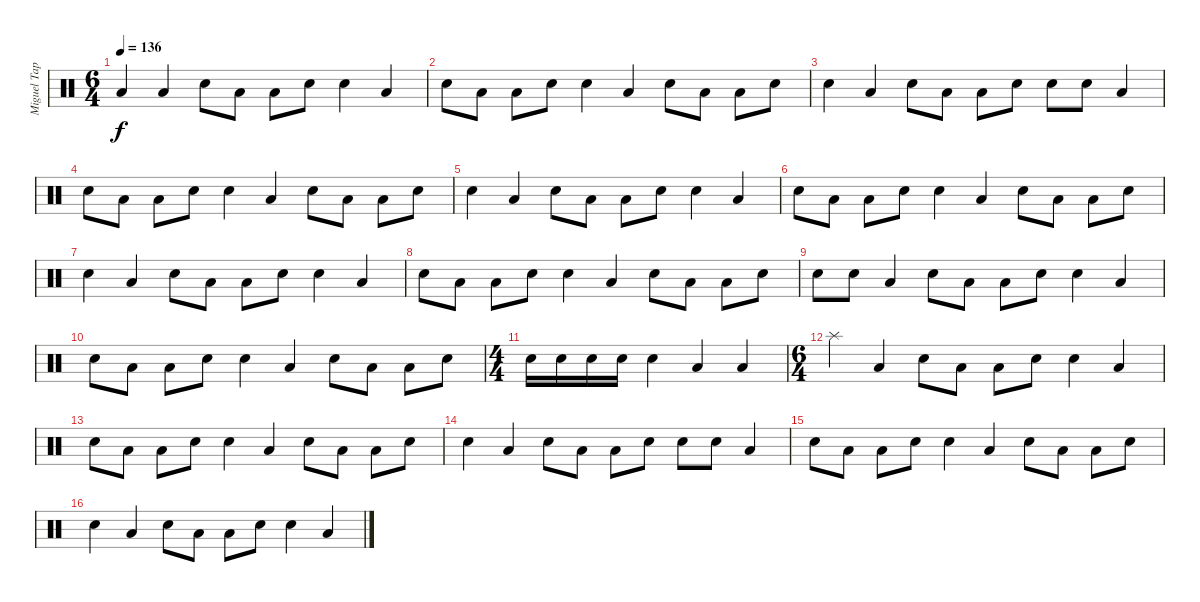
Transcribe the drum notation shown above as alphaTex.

\track ("Miguel Tapia (Bateria)" "Miguel Tap") {instrument percussion}
\staff {score}
\articulation defaults
\ts (6 4)
\tempo 136
\clef neutral
\ks c "Low Tom (hit)".4{dy f} "Low Tom (hit)".4 "Snare (hit) 2".8 "Low Tom (hit)".8 "Low Tom (hit)".8 "Snare (hit) 2".8 "Snare (hit) 2".4 "Low Tom (hit)".4
|
"Snare (hit) 2".8 "Low Tom (hit)".8 "Low Tom (hit)".8 "Snare (hit) 2".8 "Snare (hit) 2".4 "Low Tom (hit)".4 "Snare (hit) 2".8 "Low Tom (hit)".8 "Low Tom (hit)".8 "Snare (hit) 2".8 |
"Snare (hit) 2".4 "Low Tom (hit)".4 "Snare (hit) 2".8 "Low Tom (hit)".8 "Low Tom (hit)".8 "Snare (hit) 2".8 "Snare (hit) 2".8 "Snare (hit) 2".8 "Low Tom (hit)".4 |
"Snare (hit) 2".8 "Low Tom (hit)".8 "Low Tom (hit)".8 "Snare (hit) 2".8 "Snare (hit) 2".4 "Low Tom (hit)".4 "Snare (hit) 2".8 "Low Tom (hit)".8 "Low Tom (hit)".8 "Snare (hit) 2".8 |
"Snare (hit) 2".4 "Low Tom (hit)".4 "Snare (hit) 2".8 "Low Tom (hit)".8 "Low Tom (hit)".8 "Snare (hit) 2".8 "Snare (hit) 2".4 "Low Tom (hit)".4 |
"Snare (hit) 2".8 "Low Tom (hit)".8 "Low Tom (hit)".8 "Snare (hit) 2".8 "Snare (hit) 2".4 "Low Tom (hit)".4 "Snare (hit) 2".8 "Low Tom (hit)".8 "Low Tom (hit)".8 "Snare (hit) 2".8 |
"Snare (hit) 2".4 "Low Tom (hit)".4 "Snare (hit) 2".8 "Low Tom (hit)".8 "Low Tom (hit)".8 "Snare (hit) 2".8 "Snare (hit) 2".4 "Low Tom (hit)".4 |
"Snare (hit) 2".8 "Low Tom (hit)".8 "Low Tom (hit)".8 "Snare (hit) 2".8 "Snare (hit) 2".4 "Low Tom (hit)".4 "Snare (hit) 2".8 "Low Tom (hit)".8 "Low Tom (hit)".8 "Snare (hit) 2".8 |
"Snare (hit) 2".8 "Snare (hit) 2".8 "Low Tom (hit)".4 "Snare (hit) 2".8 "Low Tom (hit)".8 "Low Tom (hit)".8 "Snare (hit) 2".8 "Snare (hit) 2".4 "Low Tom (hit)".4 |
"Snare (hit) 2".8 "Low Tom (hit)".8 "Low Tom (hit)".8 "Snare (hit) 2".8 "Snare (hit) 2".4 "Low Tom (hit)".4 "Snare (hit) 2".8 "Low Tom (hit)".8 "Low Tom (hit)".8 "Snare (hit) 2".8 |
\ts (4 4)
"Snare (hit) 2".16 "Snare (hit) 2".16 "Snare (hit) 2".16 "Snare (hit) 2".16 "Snare (hit) 2".4 "Low Tom (hit)".4 "Low Tom (hit)".4 |
\ts (6 4)
"Splash (hit)".4 "Low Tom (hit)".4 "Snare (hit) 2".8 "Low Tom (hit)".8 "Low Tom (hit)".8 "Snare (hit) 2".8 "Snare (hit) 2".4 "Low Tom (hit)".4 |
"Snare (hit) 2".8 "Low Tom (hit)".8 "Low Tom (hit)".8 "Snare (hit) 2".8 "Snare (hit) 2".4 "Low Tom (hit)".4 "Snare (hit) 2".8 "Low Tom (hit)".8 "Low Tom (hit)".8 "Snare (hit) 2".8 |
"Snare (hit) 2".4 "Low Tom (hit)".4 "Snare (hit) 2".8 "Low Tom (hit)".8 "Low Tom (hit)".8 "Snare (hit) 2".8 "Snare (hit) 2".8 "Snare (hit) 2".8 "Low Tom (hit)".4 |
"Snare (hit) 2".8 "Low Tom (hit)".8 "Low Tom (hit)".8 "Snare (hit) 2".8 "Snare (hit) 2".4 "Low Tom (hit)".4 "Snare (hit) 2".8 "Low Tom (hit)".8 "Low Tom (hit)".8 "Snare (hit) 2".8 |
"Snare (hit) 2".4 "Low Tom (hit)".4 "Snare (hit) 2".8 "Low Tom (hit)".8 "Low Tom (hit)".8 "Snare (hit) 2".8 "Snare (hit) 2".4 "Low Tom (hit)".4
